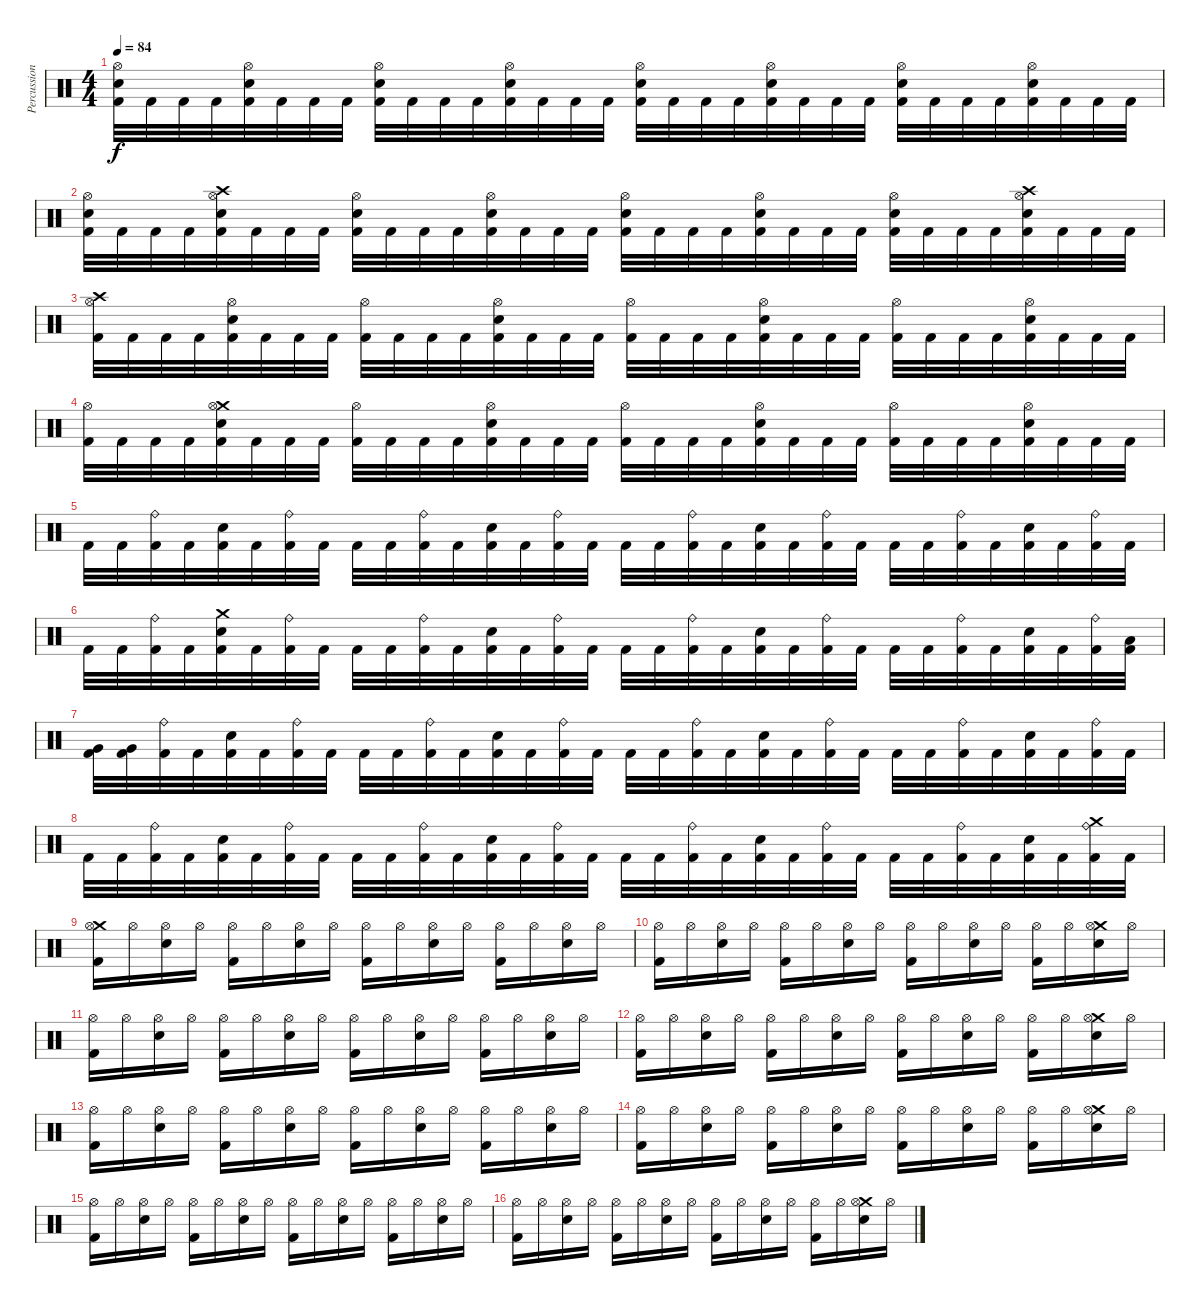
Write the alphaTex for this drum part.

\track ("Percussion" "Percussion") {instrument percussion}
\staff {score}
\articulation defaults
\ts (4 4)
\tempo 84
\clef neutral
\ks c
("Hi-Hat (open)" "Snare (hit) 2" "Kick (hit) 2").32{dy f} "Kick (hit) 2".32 "Kick (hit) 2".32 "Kick (hit) 2".32 ("Hi-Hat (open)" "Snare (hit) 2" "Kick (hit) 2").32 "Kick (hit) 2".32 "Kick (hit) 2".32 "Kick (hit) 2".32 ("Hi-Hat (open)" "Snare (hit) 2" "Kick (hit) 2").32 "Kick (hit) 2".32 "Kick (hit) 2".32 "Kick (hit) 2".32 ("Hi-Hat (open)" "Snare (hit) 2" "Kick (hit) 2").32 "Kick (hit) 2".32 "Kick (hit) 2".32 "Kick (hit) 2".32 ("Hi-Hat (open)" "Snare (hit) 2" "Kick (hit) 2").32 "Kick (hit) 2".32 "Kick (hit) 2".32 "Kick (hit) 2".32 ("Hi-Hat (open)" "Snare (hit) 2" "Kick (hit) 2").32 "Kick (hit) 2".32 "Kick (hit) 2".32 "Kick (hit) 2".32 ("Hi-Hat (open)" "Snare (hit) 2" "Kick (hit) 2").32 "Kick (hit) 2".32 "Kick (hit) 2".32 "Kick (hit) 2".32 ("Hi-Hat (open)" "Snare (hit) 2" "Kick (hit) 2").32 "Kick (hit) 2".32 "Kick (hit) 2".32 "Kick (hit) 2".32 |
("Hi-Hat (open)" "Snare (hit) 2" "Kick (hit) 2").32 "Kick (hit) 2".32 "Kick (hit) 2".32 "Kick (hit) 2".32 ("Crash high (hit)" "Hi-Hat (open)" "Snare (hit) 2" "Kick (hit) 2").32 "Kick (hit) 2".32 "Kick (hit) 2".32 "Kick (hit) 2".32 ("Hi-Hat (open)" "Snare (hit) 2" "Kick (hit) 2").32 "Kick (hit) 2".32 "Kick (hit) 2".32 "Kick (hit) 2".32 ("Hi-Hat (open)" "Snare (hit) 2" "Kick (hit) 2").32 "Kick (hit) 2".32 "Kick (hit) 2".32 "Kick (hit) 2".32 ("Hi-Hat (open)" "Snare (hit) 2" "Kick (hit) 2").32 "Kick (hit) 2".32 "Kick (hit) 2".32 "Kick (hit) 2".32 ("Hi-Hat (open)" "Snare (hit) 2" "Kick (hit) 2").32 "Kick (hit) 2".32 "Kick (hit) 2".32 "Kick (hit) 2".32 ("Hi-Hat (open)" "Snare (hit) 2" "Kick (hit) 2").32 "Kick (hit) 2".32 "Kick (hit) 2".32 "Kick (hit) 2".32 ("Crash high (hit)" "Hi-Hat (open)" "Snare (hit) 2" "Kick (hit) 2").32 "Kick (hit) 2".32 "Kick (hit) 2".32 "Kick (hit) 2".32 |
("Crash high (hit)" "Hi-Hat (open)" "Kick (hit) 2").32 "Kick (hit) 2".32 "Kick (hit) 2".32 "Kick (hit) 2".32 ("Hi-Hat (open)" "Snare (hit) 2" "Kick (hit) 2").32 "Kick (hit) 2".32 "Kick (hit) 2".32 "Kick (hit) 2".32 ("Hi-Hat (open)" "Kick (hit) 2").32 "Kick (hit) 2".32 "Kick (hit) 2".32 "Kick (hit) 2".32 ("Hi-Hat (open)" "Snare (hit) 2" "Kick (hit) 2").32 "Kick (hit) 2".32 "Kick (hit) 2".32 "Kick (hit) 2".32 ("Hi-Hat (open)" "Kick (hit) 2").32 "Kick (hit) 2".32 "Kick (hit) 2".32 "Kick (hit) 2".32 ("Hi-Hat (open)" "Snare (hit) 2" "Kick (hit) 2").32 "Kick (hit) 2".32 "Kick (hit) 2".32 "Kick (hit) 2".32 ("Hi-Hat (open)" "Kick (hit) 2").32 "Kick (hit) 2".32 "Kick (hit) 2".32 "Kick (hit) 2".32 ("Hi-Hat (open)" "Snare (hit) 2" "Kick (hit) 2").32 "Kick (hit) 2".32 "Kick (hit) 2".32 "Kick (hit) 2".32 |
("Hi-Hat (open)" "Kick (hit) 2").32 "Kick (hit) 2".32 "Kick (hit) 2".32 "Kick (hit) 2".32 ("Crash medium (hit)" "Hi-Hat (open)" "Snare (hit) 2" "Kick (hit) 2").32 "Kick (hit) 2".32 "Kick (hit) 2".32 "Kick (hit) 2".32 ("Hi-Hat (open)" "Kick (hit) 2").32 "Kick (hit) 2".32 "Kick (hit) 2".32 "Kick (hit) 2".32 ("Hi-Hat (open)" "Snare (hit) 2" "Kick (hit) 2").32 "Kick (hit) 2".32 "Kick (hit) 2".32 "Kick (hit) 2".32 ("Hi-Hat (open)" "Kick (hit) 2").32 "Kick (hit) 2".32 "Kick (hit) 2".32 "Kick (hit) 2".32 ("Hi-Hat (open)" "Snare (hit) 2" "Kick (hit) 2").32 "Kick (hit) 2".32 "Kick (hit) 2".32 "Kick (hit) 2".32 ("Hi-Hat (open)" "Kick (hit) 2").32 "Kick (hit) 2".32 "Kick (hit) 2".32 "Kick (hit) 2".32 ("Hi-Hat (open)" "Snare (hit) 2" "Kick (hit) 2").32 "Kick (hit) 2".32 "Kick (hit) 2".32 "Kick (hit) 2".32 |
"Kick (hit) 2".32 "Kick (hit) 2".32 ("Ride (bell)" "Kick (hit) 2").32 "Kick (hit) 2".32 ("Snare (hit) 2" "Kick (hit) 2").32 "Kick (hit) 2".32 ("Ride (bell)" "Kick (hit) 2").32 "Kick (hit) 2".32 "Kick (hit) 2".32 "Kick (hit) 2".32 ("Ride (bell)" "Kick (hit) 2").32 "Kick (hit) 2".32 ("Snare (hit) 2" "Kick (hit) 2").32 "Kick (hit) 2".32 ("Ride (bell)" "Kick (hit) 2").32 "Kick (hit) 2".32 "Kick (hit) 2".32 "Kick (hit) 2".32 ("Ride (bell)" "Kick (hit) 2").32 "Kick (hit) 2".32 ("Snare (hit) 2" "Kick (hit) 2").32 "Kick (hit) 2".32 ("Ride (bell)" "Kick (hit) 2").32 "Kick (hit) 2".32 "Kick (hit) 2".32 "Kick (hit) 2".32 ("Ride (bell)" "Kick (hit) 2").32 "Kick (hit) 2".32 ("Snare (hit) 2" "Kick (hit) 2").32 "Kick (hit) 2".32 ("Ride (bell)" "Kick (hit) 2").32 "Kick (hit) 2".32 |
"Kick (hit) 2".32 "Kick (hit) 2".32 ("Ride (bell)" "Kick (hit) 2").32 "Kick (hit) 2".32 ("Crash medium (hit)" "Snare (hit) 2" "Kick (hit) 2").32 "Kick (hit) 2".32 ("Ride (bell)" "Kick (hit) 2").32 "Kick (hit) 2".32 "Kick (hit) 2".32 "Kick (hit) 2".32 ("Ride (bell)" "Kick (hit) 2").32 "Kick (hit) 2".32 ("Snare (hit) 2" "Kick (hit) 2").32 "Kick (hit) 2".32 ("Ride (bell)" "Kick (hit) 2").32 "Kick (hit) 2".32 "Kick (hit) 2".32 "Kick (hit) 2".32 ("Ride (bell)" "Kick (hit) 2").32 "Kick (hit) 2".32 ("Snare (hit) 2" "Kick (hit) 2").32 "Kick (hit) 2".32 ("Ride (bell)" "Kick (hit) 2").32 "Kick (hit) 2".32 "Kick (hit) 2".32 "Kick (hit) 2".32 ("Ride (bell)" "Kick (hit) 2").32 "Kick (hit) 2".32 ("Snare (hit) 2" "Kick (hit) 2").32 "Kick (hit) 2".32 ("Ride (bell)" "Kick (hit) 2").32 ("Low Tom (hit)" "Kick (hit) 2").32 |
("Very Low Tom (hit)" "Kick (hit) 2").32 ("Very Low Tom (hit)" "Kick (hit) 2").32 ("Ride (bell)" "Kick (hit) 2").32 "Kick (hit) 2".32 ("Snare (hit) 2" "Kick (hit) 2").32 "Kick (hit) 2".32 ("Ride (bell)" "Kick (hit) 2").32 "Kick (hit) 2".32 "Kick (hit) 2".32 "Kick (hit) 2".32 ("Ride (bell)" "Kick (hit) 2").32 "Kick (hit) 2".32 ("Snare (hit) 2" "Kick (hit) 2").32 "Kick (hit) 2".32 ("Ride (bell)" "Kick (hit) 2").32 "Kick (hit) 2".32 "Kick (hit) 2".32 "Kick (hit) 2".32 ("Ride (bell)" "Kick (hit) 2").32 "Kick (hit) 2".32 ("Snare (hit) 2" "Kick (hit) 2").32 "Kick (hit) 2".32 ("Ride (bell)" "Kick (hit) 2").32 "Kick (hit) 2".32 "Kick (hit) 2".32 "Kick (hit) 2".32 ("Ride (bell)" "Kick (hit) 2").32 "Kick (hit) 2".32 ("Snare (hit) 2" "Kick (hit) 2").32 "Kick (hit) 2".32 ("Ride (bell)" "Kick (hit) 2").32 "Kick (hit) 2".32 |
"Kick (hit) 2".32 "Kick (hit) 2".32 ("Ride (bell)" "Kick (hit) 2").32 "Kick (hit) 2".32 ("Snare (hit) 2" "Kick (hit) 2").32 "Kick (hit) 2".32 ("Ride (bell)" "Kick (hit) 2").32 "Kick (hit) 2".32 "Kick (hit) 2".32 "Kick (hit) 2".32 ("Ride (bell)" "Kick (hit) 2").32 "Kick (hit) 2".32 ("Snare (hit) 2" "Kick (hit) 2").32 "Kick (hit) 2".32 ("Ride (bell)" "Kick (hit) 2").32 "Kick (hit) 2".32 "Kick (hit) 2".32 "Kick (hit) 2".32 ("Ride (bell)" "Kick (hit) 2").32 "Kick (hit) 2".32 ("Snare (hit) 2" "Kick (hit) 2").32 "Kick (hit) 2".32 ("Ride (bell)" "Kick (hit) 2").32 "Kick (hit) 2".32 "Kick (hit) 2".32 "Kick (hit) 2".32 ("Ride (bell)" "Kick (hit) 2").32 "Kick (hit) 2".32 ("Snare (hit) 2" "Kick (hit) 2").32 "Kick (hit) 2".32 ("Crash medium (hit)" "Ride (bell)" "Kick (hit) 2").32 "Kick (hit) 2".32 |
("Crash medium (hit)" "Hi-Hat (open)" "Kick (hit) 2").16 "Hi-Hat (open)".16 ("Hi-Hat (open)" "Snare (hit) 2").16 "Hi-Hat (open)".16 ("Hi-Hat (open)" "Kick (hit) 2").16 "Hi-Hat (open)".16 ("Hi-Hat (open)" "Snare (hit) 2").16 "Hi-Hat (open)".16 ("Hi-Hat (open)" "Kick (hit) 2").16 "Hi-Hat (open)".16 ("Hi-Hat (open)" "Snare (hit) 2").16 "Hi-Hat (open)".16 ("Hi-Hat (open)" "Kick (hit) 2").16 "Hi-Hat (open)".16 ("Hi-Hat (open)" "Snare (hit) 2").16 "Hi-Hat (open)".16 |
("Hi-Hat (open)" "Kick (hit) 2").16 "Hi-Hat (open)".16 ("Hi-Hat (open)" "Snare (hit) 2").16 "Hi-Hat (open)".16 ("Hi-Hat (open)" "Kick (hit) 2").16 "Hi-Hat (open)".16 ("Hi-Hat (open)" "Snare (hit) 2").16 "Hi-Hat (open)".16 ("Hi-Hat (open)" "Kick (hit) 2").16 "Hi-Hat (open)".16 ("Hi-Hat (open)" "Snare (hit) 2").16 "Hi-Hat (open)".16 ("Hi-Hat (open)" "Kick (hit) 2").16 "Hi-Hat (open)".16 ("Crash medium (hit)" "Hi-Hat (open)" "Snare (hit) 2").16 "Hi-Hat (open)".16 |
("Hi-Hat (open)" "Kick (hit) 2").16 "Hi-Hat (open)".16 ("Hi-Hat (open)" "Snare (hit) 2").16 "Hi-Hat (open)".16 ("Hi-Hat (open)" "Kick (hit) 2").16 "Hi-Hat (open)".16 ("Hi-Hat (open)" "Snare (hit) 2").16 "Hi-Hat (open)".16 ("Hi-Hat (open)" "Kick (hit) 2").16 "Hi-Hat (open)".16 ("Hi-Hat (open)" "Snare (hit) 2").16 "Hi-Hat (open)".16 ("Hi-Hat (open)" "Kick (hit) 2").16 "Hi-Hat (open)".16 ("Hi-Hat (open)" "Snare (hit) 2").16 "Hi-Hat (open)".16 |
("Hi-Hat (open)" "Kick (hit) 2").16 "Hi-Hat (open)".16 ("Hi-Hat (open)" "Snare (hit) 2").16 "Hi-Hat (open)".16 ("Hi-Hat (open)" "Kick (hit) 2").16 "Hi-Hat (open)".16 ("Hi-Hat (open)" "Snare (hit) 2").16 "Hi-Hat (open)".16 ("Hi-Hat (open)" "Kick (hit) 2").16 "Hi-Hat (open)".16 ("Hi-Hat (open)" "Snare (hit) 2").16 "Hi-Hat (open)".16 ("Hi-Hat (open)" "Kick (hit) 2").16 "Hi-Hat (open)".16 ("Crash medium (hit)" "Hi-Hat (open)" "Snare (hit) 2").16 "Hi-Hat (open)".16 |
("Hi-Hat (open)" "Kick (hit) 2").16 "Hi-Hat (open)".16 ("Hi-Hat (open)" "Snare (hit) 2").16 "Hi-Hat (open)".16 ("Hi-Hat (open)" "Kick (hit) 2").16 "Hi-Hat (open)".16 ("Hi-Hat (open)" "Snare (hit) 2").16 "Hi-Hat (open)".16 ("Hi-Hat (open)" "Kick (hit) 2").16 "Hi-Hat (open)".16 ("Hi-Hat (open)" "Snare (hit) 2").16 "Hi-Hat (open)".16 ("Hi-Hat (open)" "Kick (hit) 2").16 "Hi-Hat (open)".16 ("Hi-Hat (open)" "Snare (hit) 2").16 "Hi-Hat (open)".16 |
("Hi-Hat (open)" "Kick (hit) 2").16 "Hi-Hat (open)".16 ("Hi-Hat (open)" "Snare (hit) 2").16 "Hi-Hat (open)".16 ("Hi-Hat (open)" "Kick (hit) 2").16 "Hi-Hat (open)".16 ("Hi-Hat (open)" "Snare (hit) 2").16 "Hi-Hat (open)".16 ("Hi-Hat (open)" "Kick (hit) 2").16 "Hi-Hat (open)".16 ("Hi-Hat (open)" "Snare (hit) 2").16 "Hi-Hat (open)".16 ("Hi-Hat (open)" "Kick (hit) 2").16 "Hi-Hat (open)".16 ("Crash medium (hit)" "Hi-Hat (open)" "Snare (hit) 2").16 "Hi-Hat (open)".16 |
("Hi-Hat (open)" "Kick (hit) 2").16 "Hi-Hat (open)".16 ("Hi-Hat (open)" "Snare (hit) 2").16 "Hi-Hat (open)".16 ("Hi-Hat (open)" "Kick (hit) 2").16 "Hi-Hat (open)".16 ("Hi-Hat (open)" "Snare (hit) 2").16 "Hi-Hat (open)".16 ("Hi-Hat (open)" "Kick (hit) 2").16 "Hi-Hat (open)".16 ("Hi-Hat (open)" "Snare (hit) 2").16 "Hi-Hat (open)".16 ("Hi-Hat (open)" "Kick (hit) 2").16 "Hi-Hat (open)".16 ("Hi-Hat (open)" "Snare (hit) 2").16 "Hi-Hat (open)".16 |
("Hi-Hat (open)" "Kick (hit) 2").16 "Hi-Hat (open)".16 ("Hi-Hat (open)" "Snare (hit) 2").16 "Hi-Hat (open)".16 ("Hi-Hat (open)" "Kick (hit) 2").16 "Hi-Hat (open)".16 ("Hi-Hat (open)" "Snare (hit) 2").16 "Hi-Hat (open)".16 ("Hi-Hat (open)" "Kick (hit) 2").16 "Hi-Hat (open)".16 ("Hi-Hat (open)" "Snare (hit) 2").16 "Hi-Hat (open)".16 ("Hi-Hat (open)" "Kick (hit) 2").16 "Hi-Hat (open)".16 ("Crash medium (hit)" "Hi-Hat (open)" "Snare (hit) 2").16 "Hi-Hat (open)".16
